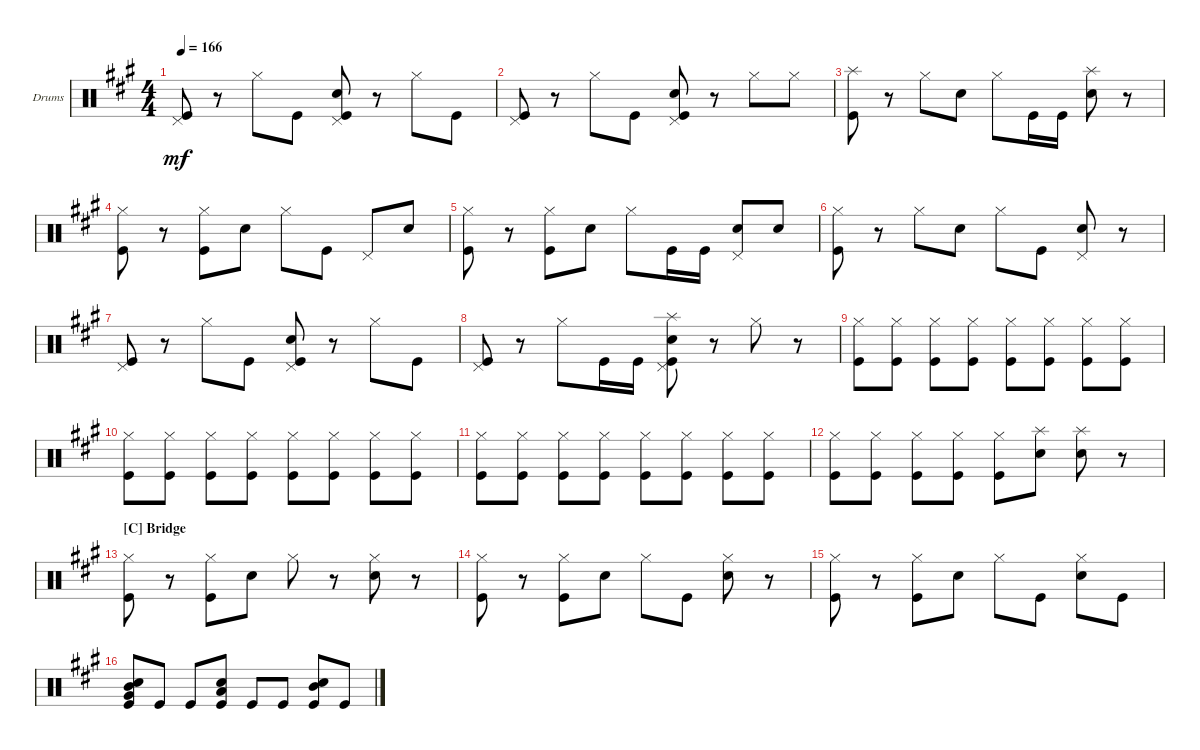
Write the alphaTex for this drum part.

\defaultSystemsLayout 4
\bracketExtendMode groupsimilarinstruments
\firstSystemTrackNameOrientation horizontal
\otherSystemsTrackNameOrientation horizontal
\track ("Drumkit" "Drums") {instrument percussion}
\staff {score}
\articulation defaults
\ts (4 4)
\tempo 166
\clef neutral
\ks a
("Kick (hit)" "Pedal Hi-Hat (hit)").8{dy mf} r.8 "Hi-Hat (closed)".8 "Kick (hit)".8 ("Kick (hit)" "Pedal Hi-Hat (hit)" "Snare (hit) 2").8 r.8 "Hi-Hat (closed)".8 "Kick (hit)".8 |
("Kick (hit)" "Pedal Hi-Hat (hit)").8 r.8 "Hi-Hat (closed)".8 "Kick (hit)".8 ("Kick (hit)" "Pedal Hi-Hat (hit)" "Snare (hit) 2").8 r.8 "Hi-Hat (closed)".8 "Hi-Hat (closed)".8 |
("Kick (hit)" "Splash (hit)").8 r.8 "Hi-Hat (closed)".8 "Snare (hit) 2".8 "Hi-Hat (closed)".8 "Kick (hit)".16 "Kick (hit)".16 ("Snare (hit) 2" "Splash (hit)").8 r.8 |
("Kick (hit)" "Hi-Hat (closed)").8 r.8 ("Hi-Hat (closed)" "Kick (hit)").8 "Snare (hit) 2".8 "Hi-Hat (closed)".8 "Kick (hit)".8 "Pedal Hi-Hat (hit)".8 "Snare (hit) 2".8 |
("Kick (hit)" "Hi-Hat (closed)").8 r.8 ("Hi-Hat (closed)" "Kick (hit)").8 "Snare (hit) 2".8 "Hi-Hat (closed)".8 "Kick (hit)".16 "Kick (hit)".16 ("Pedal Hi-Hat (hit)" "Snare (hit) 2").8 "Snare (hit) 2".8 |
("Kick (hit)" "Hi-Hat (closed)").8 r.8 "Hi-Hat (closed)".8 "Snare (hit) 2".8 "Hi-Hat (closed)".8 "Kick (hit)".8 ("Pedal Hi-Hat (hit)" "Snare (hit) 2").8 r.8 |
("Kick (hit)" "Pedal Hi-Hat (hit)").8 r.8 "Hi-Hat (closed)".8 "Kick (hit)".8 ("Kick (hit)" "Pedal Hi-Hat (hit)" "Snare (hit) 2").8 r.8 "Hi-Hat (closed)".8 "Kick (hit)".8 |
("Kick (hit)" "Pedal Hi-Hat (hit)").8 r.8 "Hi-Hat (closed)".8 "Kick (hit)".16 "Kick (hit)".16 ("Kick (hit)" "Pedal Hi-Hat (hit)" "Snare (hit) 2" "Splash (hit)").8 r.8 "Hi-Hat (closed)".8 r.8 |
("Hi-Hat (closed)" "Kick (hit)").8 ("Hi-Hat (closed)" "Kick (hit)").8 ("Hi-Hat (closed)" "Kick (hit)").8 ("Hi-Hat (closed)" "Kick (hit)").8 ("Hi-Hat (closed)" "Kick (hit)").8 ("Hi-Hat (closed)" "Kick (hit)").8 ("Hi-Hat (closed)" "Kick (hit)").8 ("Hi-Hat (closed)" "Kick (hit)").8 |
("Hi-Hat (closed)" "Kick (hit)").8 ("Hi-Hat (closed)" "Kick (hit)").8 ("Hi-Hat (closed)" "Kick (hit)").8 ("Hi-Hat (closed)" "Kick (hit)").8 ("Hi-Hat (closed)" "Kick (hit)").8 ("Hi-Hat (closed)" "Kick (hit)").8 ("Hi-Hat (closed)" "Kick (hit)").8 ("Hi-Hat (closed)" "Kick (hit)").8 |
("Hi-Hat (closed)" "Kick (hit)").8 ("Hi-Hat (closed)" "Kick (hit)").8 ("Hi-Hat (closed)" "Kick (hit)").8 ("Hi-Hat (closed)" "Kick (hit)").8 ("Hi-Hat (closed)" "Kick (hit)").8 ("Hi-Hat (closed)" "Kick (hit)").8 ("Hi-Hat (closed)" "Kick (hit)").8 ("Hi-Hat (closed)" "Kick (hit)").8 |
("Hi-Hat (closed)" "Kick (hit)").8 ("Hi-Hat (closed)" "Kick (hit)").8 ("Hi-Hat (closed)" "Kick (hit)").8 ("Hi-Hat (closed)" "Kick (hit)").8 ("Hi-Hat (closed)" "Kick (hit)").8 ("Snare (hit) 2" "Splash (hit)").8 ("Snare (hit) 2" "Splash (hit)").8 r.8 |
\section ("C" "Bridge")
("Kick (hit)" "Hi-Hat (closed)").8 r.8 ("Kick (hit)" "Hi-Hat (closed)").8 "Snare (hit) 2".8 "Hi-Hat (closed)".8 r.8 ("Snare (hit) 2" "Hi-Hat (closed)").8 r.8 |
("Kick (hit)" "Hi-Hat (closed)").8 r.8 ("Kick (hit)" "Hi-Hat (closed)").8 "Snare (hit) 2".8 "Hi-Hat (closed)".8 "Kick (hit)".8 ("Snare (hit) 2" "Hi-Hat (closed)").8 r.8 |
("Kick (hit)" "Hi-Hat (closed)").8 r.8 ("Kick (hit)" "Hi-Hat (closed)").8 "Snare (hit) 2".8 "Hi-Hat (closed)".8 "Kick (hit)".8 ("Snare (hit) 2" "Hi-Hat (closed)").8 "Kick (hit)".8 |
("Kick (hit)" "Snare (hit) 2" "Very Low Tom (hit)" "Mid Tom (hit)").8 "Kick (hit)".8 "Kick (hit)".8 ("Kick (hit)" "Snare (hit) 2" "Low Tom (hit)").8 "Kick (hit)".8 "Kick (hit)".8 ("Kick (hit)" "Snare (hit) 2" "Mid Tom (hit)").8 "Kick (hit)".8
